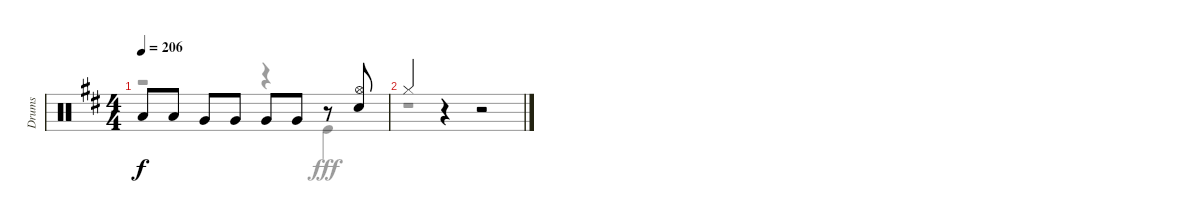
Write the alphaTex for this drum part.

\track ("Drums" "Drums") {instrument percussion}
\staff {score}
\articulation defaults
\voice
\ts (4 4)
\tempo 206
\clef neutral
\ks d "Low Tom (hit)".8{dy f} "Low Tom (hit)".8 "Very Low Tom (hit)".8 "Very Low Tom (hit)".8 "Very Low Tom (hit)".8 "Very Low Tom (hit)".8
r.8 ("Hi-Hat (open)" "Snare (hit) 2").8 |
"Hi-Hat (closed)".4 r.4 r.2
\voice
\clef neutral
\ottava regular
\simile none
\ks d
r.2{dy fff} r.4 "Kick (hit)".4 |
r.1
